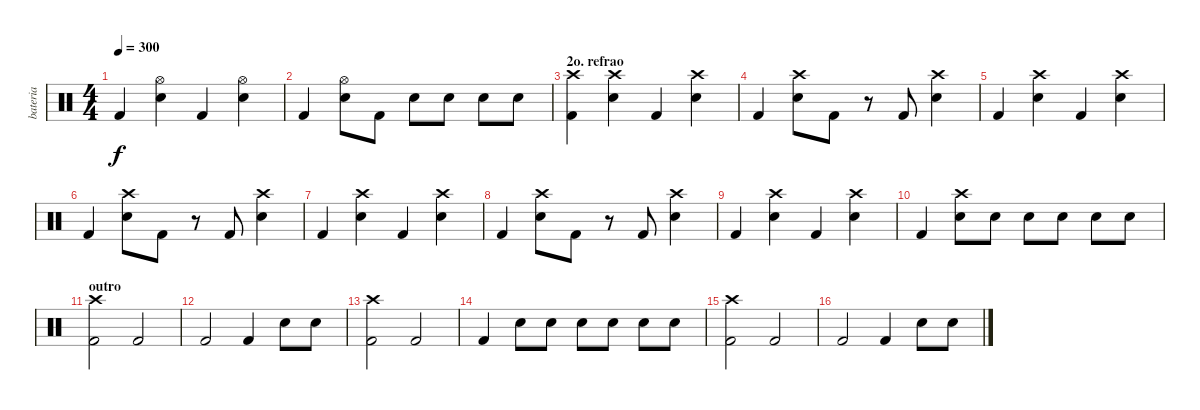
\track ("bateria" "bateria") {instrument percussion}
\staff {score}
\articulation defaults
\ts (4 4)
\tempo 300
\clef neutral
\ks c "Kick (hit) 2".4{dy f}
("Electric Snare (hit)" "Hi-Hat (open)").4 "Kick (hit) 2".4 ("Electric Snare (hit)" "Hi-Hat (open)").4 |
"Kick (hit) 2".4 ("Electric Snare (hit)" "Hi-Hat (open)").8 "Kick (hit) 2".8 "Electric Snare (hit)".8 "Electric Snare (hit)".8 "Electric Snare (hit)".8 "Electric Snare (hit)".8 |
\section ("" "2o. refrao")
("Crash high (hit)" "Kick (hit) 2").4 ("Crash high (hit)" "Electric Snare (hit)").4 "Kick (hit) 2".4 ("Crash high (hit)" "Electric Snare (hit)").4 |
"Kick (hit) 2".4 ("Crash high (hit)" "Electric Snare (hit)").8 "Kick (hit) 2".8 r.8 "Kick (hit) 2".8 ("Crash high (hit)" "Electric Snare (hit)").4 |
"Kick (hit) 2".4 ("Crash high (hit)" "Electric Snare (hit)").4 "Kick (hit) 2".4 ("Crash high (hit)" "Electric Snare (hit)").4 |
"Kick (hit) 2".4 ("Crash high (hit)" "Electric Snare (hit)").8 "Kick (hit) 2".8 r.8 "Kick (hit) 2".8 ("Crash high (hit)" "Electric Snare (hit)").4 |
"Kick (hit) 2".4 ("Crash high (hit)" "Electric Snare (hit)").4 "Kick (hit) 2".4 ("Crash high (hit)" "Electric Snare (hit)").4 |
"Kick (hit) 2".4 ("Crash high (hit)" "Electric Snare (hit)").8 "Kick (hit) 2".8 r.8 "Kick (hit) 2".8 ("Crash high (hit)" "Electric Snare (hit)").4 |
"Kick (hit) 2".4 ("Crash high (hit)" "Electric Snare (hit)").4 "Kick (hit) 2".4 ("Crash high (hit)" "Electric Snare (hit)").4 |
"Kick (hit) 2".4 ("Crash high (hit)" "Electric Snare (hit)").8 "Electric Snare (hit)".8 "Electric Snare (hit)".8 "Electric Snare (hit)".8 "Electric Snare (hit)".8 "Electric Snare (hit)".8 |
\section ("" "outro")
("Crash high (hit)" "Kick (hit) 2").2 "Kick (hit) 2".2 |
"Kick (hit) 2".2 "Kick (hit) 2".4 "Electric Snare (hit)".8 "Electric Snare (hit)".8 |
("Crash high (hit)" "Kick (hit) 2").2 "Kick (hit) 2".2 |
"Kick (hit) 2".4 "Electric Snare (hit)".8 "Electric Snare (hit)".8 "Electric Snare (hit)".8 "Electric Snare (hit)".8 "Electric Snare (hit)".8 "Electric Snare (hit)".8 |
("Crash high (hit)" "Kick (hit) 2").2 "Kick (hit) 2".2 |
"Kick (hit) 2".2 "Kick (hit) 2".4 "Electric Snare (hit)".8 "Electric Snare (hit)".8
